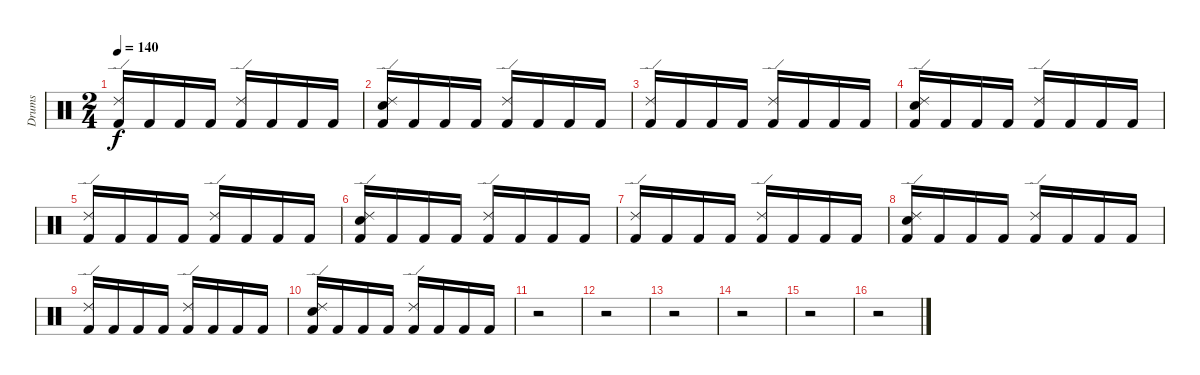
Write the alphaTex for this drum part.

\track ("Drums" "Drums") {instrument percussion}
\staff {score}
\articulation defaults
\ts (2 4)
\tempo 140
\clef neutral
\ks c
("Kick (hit) 2" "Ride (edge) 2").16{dy f} "Kick (hit) 2".16 "Kick (hit) 2".16 "Kick (hit) 2".16 ("Kick (hit) 2" "Ride (edge) 2").16 "Kick (hit) 2".16 "Kick (hit) 2".16 "Kick (hit) 2".16 |
("Kick (hit) 2" "Electric Snare (hit)" "Ride (edge) 2").16 "Kick (hit) 2".16 "Kick (hit) 2".16 "Kick (hit) 2".16 ("Kick (hit) 2" "Ride (edge) 2").16 "Kick (hit) 2".16 "Kick (hit) 2".16 "Kick (hit) 2".16 |
("Kick (hit) 2" "Ride (edge) 2").16 "Kick (hit) 2".16 "Kick (hit) 2".16 "Kick (hit) 2".16 ("Kick (hit) 2" "Ride (edge) 2").16 "Kick (hit) 2".16 "Kick (hit) 2".16 "Kick (hit) 2".16 |
("Kick (hit) 2" "Electric Snare (hit)" "Ride (edge) 2").16 "Kick (hit) 2".16 "Kick (hit) 2".16 "Kick (hit) 2".16 ("Kick (hit) 2" "Ride (edge) 2").16 "Kick (hit) 2".16 "Kick (hit) 2".16 "Kick (hit) 2".16 |
("Kick (hit) 2" "Ride (edge) 2").16 "Kick (hit) 2".16 "Kick (hit) 2".16 "Kick (hit) 2".16 ("Kick (hit) 2" "Ride (edge) 2").16 "Kick (hit) 2".16 "Kick (hit) 2".16 "Kick (hit) 2".16 |
("Kick (hit) 2" "Electric Snare (hit)" "Ride (edge) 2").16 "Kick (hit) 2".16 "Kick (hit) 2".16 "Kick (hit) 2".16 ("Kick (hit) 2" "Ride (edge) 2").16 "Kick (hit) 2".16 "Kick (hit) 2".16 "Kick (hit) 2".16 |
("Kick (hit) 2" "Ride (edge) 2").16 "Kick (hit) 2".16 "Kick (hit) 2".16 "Kick (hit) 2".16 ("Kick (hit) 2" "Ride (edge) 2").16 "Kick (hit) 2".16 "Kick (hit) 2".16 "Kick (hit) 2".16 |
("Kick (hit) 2" "Electric Snare (hit)" "Ride (edge) 2").16 "Kick (hit) 2".16 "Kick (hit) 2".16 "Kick (hit) 2".16 ("Kick (hit) 2" "Ride (edge) 2").16 "Kick (hit) 2".16 "Kick (hit) 2".16 "Kick (hit) 2".16 |
("Kick (hit) 2" "Ride (edge) 2").16 "Kick (hit) 2".16 "Kick (hit) 2".16 "Kick (hit) 2".16 ("Kick (hit) 2" "Ride (edge) 2").16 "Kick (hit) 2".16 "Kick (hit) 2".16 "Kick (hit) 2".16 |
("Kick (hit) 2" "Electric Snare (hit)" "Ride (edge) 2").16 "Kick (hit) 2".16 "Kick (hit) 2".16 "Kick (hit) 2".16 ("Kick (hit) 2" "Ride (edge) 2").16 "Kick (hit) 2".16 "Kick (hit) 2".16 "Kick (hit) 2".16 |
r.2 |
r.2 |
r.2 |
r.2 |
r.2 |
r.2
